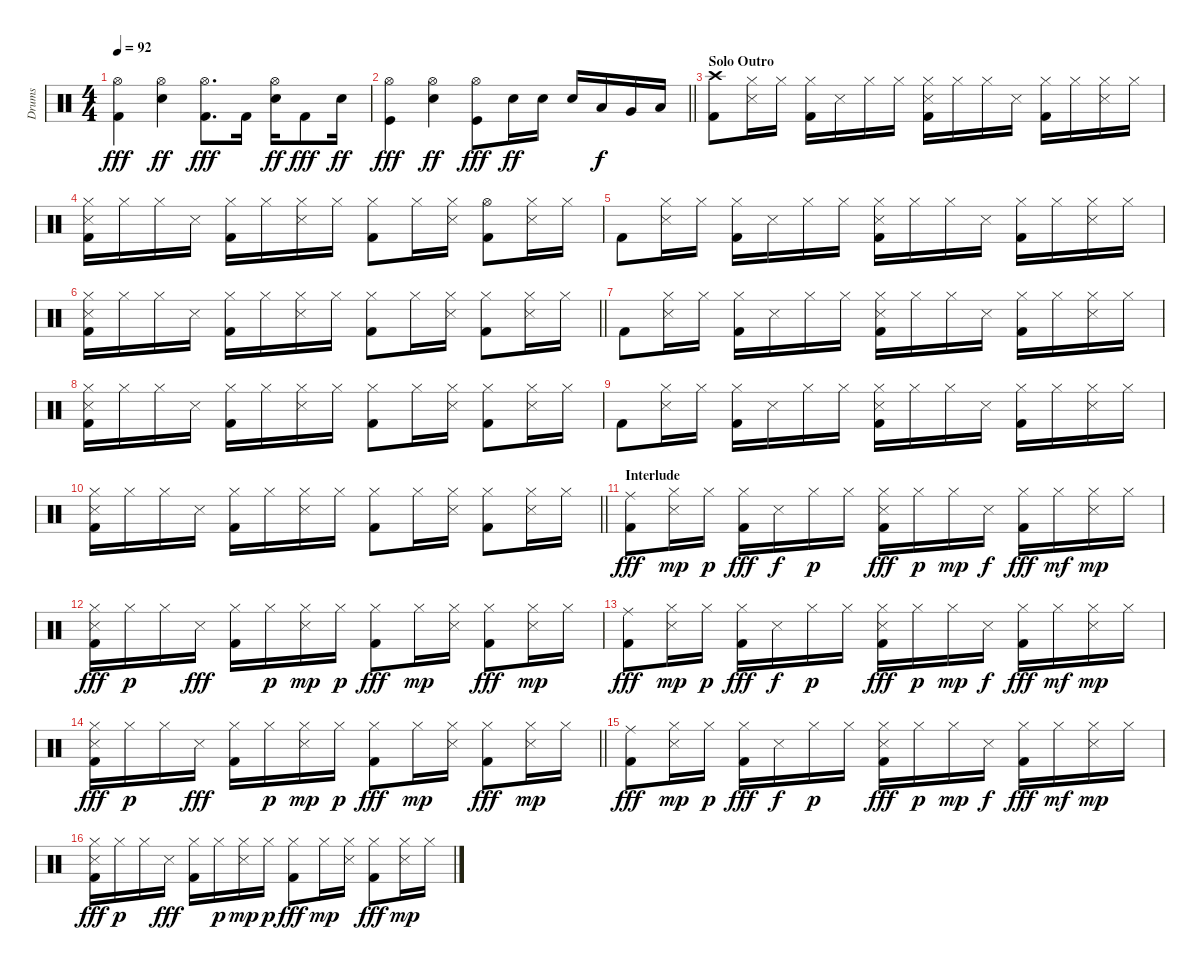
\track ("Drums" "Drums") {instrument percussion}
\staff {score}
\articulation defaults
\ts (4 4)
\tempo 92
\clef neutral
\ks c
("Hi-Hat (open)" "Kick (hit) 2").4{dy fff} ("Hi-Hat (open)" "Electric Snare (hit)").4{dy ff} ("Hi-Hat (open)" "Kick (hit) 2").8{d dy fff} "Kick (hit) 2".16 ("Hi-Hat (open)" "Electric Snare (hit)").16{dy ff} "Kick (hit) 2".8{dy fff} "Electric Snare (hit)".16{dy ff} |
\barLineRight lightlight
("Hi-Hat (open)" "Kick (hit)").4{dy fff} ("Hi-Hat (open)" "Electric Snare (hit)").4{dy ff} ("Hi-Hat (open)" "Kick (hit)").8{dy fff} "Electric Snare (hit)".16{dy ff} "Electric Snare (hit)".16 "Electric Snare (hit)".16 "Low Tom (hit)".16{dy f} "Very Low Tom (hit)".16 "Low Floor Tom (hit)".16 |
\section ("" "Solo Outro")
("Crash high (hit)" "Kick (hit) 2").8 ("Snare (side stick) 3" "Hi-Hat (closed)").16 "Hi-Hat (closed)".16 ("Hi-Hat (closed)" "Kick (hit) 2").16 "Snare (side stick) 3".16 "Hi-Hat (closed)".16 "Hi-Hat (closed)".16 ("Snare (side stick) 3" "Hi-Hat (closed)" "Kick (hit) 2").16 "Hi-Hat (closed)".16 "Hi-Hat (closed)".16 "Snare (side stick) 3".16 ("Hi-Hat (closed)" "Kick (hit) 2").16 "Hi-Hat (closed)".16 ("Snare (side stick) 3" "Hi-Hat (closed)").16 "Hi-Hat (closed)".16 |
("Snare (side stick) 3" "Hi-Hat (closed)" "Kick (hit) 2").16 "Hi-Hat (closed)".16 "Hi-Hat (closed)".16 "Snare (side stick) 3".16 ("Hi-Hat (closed)" "Kick (hit) 2").16 "Hi-Hat (closed)".16 ("Snare (side stick) 3" "Hi-Hat (closed)").16 "Hi-Hat (closed)".16 ("Hi-Hat (closed)" "Kick (hit) 2").8 "Hi-Hat (closed)".16 ("Snare (side stick) 3" "Hi-Hat (closed)").16 ("Hi-Hat (open)" "Kick (hit) 2").8 ("Snare (side stick) 3" "Hi-Hat (closed)").16 "Hi-Hat (closed)".16 |
"Kick (hit) 2".8 ("Snare (side stick) 3" "Hi-Hat (closed)").16 "Hi-Hat (closed)".16 ("Hi-Hat (closed)" "Kick (hit) 2").16 "Snare (side stick) 3".16 "Hi-Hat (closed)".16 "Hi-Hat (closed)".16 ("Snare (side stick) 3" "Hi-Hat (closed)" "Kick (hit) 2").16 "Hi-Hat (closed)".16 "Hi-Hat (closed)".16 "Snare (side stick) 3".16 ("Hi-Hat (closed)" "Kick (hit) 2").16 "Hi-Hat (closed)".16 ("Snare (side stick) 3" "Hi-Hat (closed)").16 "Hi-Hat (closed)".16 |
\barLineRight lightlight
("Snare (side stick) 3" "Hi-Hat (closed)" "Kick (hit) 2").16 "Hi-Hat (closed)".16 "Hi-Hat (closed)".16 "Snare (side stick) 3".16 ("Hi-Hat (closed)" "Kick (hit) 2").16 "Hi-Hat (closed)".16 ("Snare (side stick) 3" "Hi-Hat (closed)").16 "Hi-Hat (closed)".16 ("Hi-Hat (closed)" "Kick (hit) 2").8 "Hi-Hat (closed)".16 ("Snare (side stick) 3" "Hi-Hat (closed)").16 ("Hi-Hat (closed)" "Kick (hit) 2").8 ("Snare (side stick) 3" "Hi-Hat (closed)").16 "Hi-Hat (closed)".16 |
\section ("" "")
"Kick (hit) 2".8 ("Snare (side stick) 3" "Hi-Hat (closed)").16 "Hi-Hat (closed)".16 ("Hi-Hat (closed)" "Kick (hit) 2").16 "Snare (side stick) 3".16 "Hi-Hat (closed)".16 "Hi-Hat (closed)".16 ("Snare (side stick) 3" "Hi-Hat (closed)" "Kick (hit) 2").16 "Hi-Hat (closed)".16 "Hi-Hat (closed)".16 "Snare (side stick) 3".16 ("Hi-Hat (closed)" "Kick (hit) 2").16 "Hi-Hat (closed)".16 ("Snare (side stick) 3" "Hi-Hat (closed)").16 "Hi-Hat (closed)".16 |
("Snare (side stick) 3" "Hi-Hat (closed)" "Kick (hit) 2").16 "Hi-Hat (closed)".16 "Hi-Hat (closed)".16 "Snare (side stick) 3".16 ("Hi-Hat (closed)" "Kick (hit) 2").16 "Hi-Hat (closed)".16 ("Snare (side stick) 3" "Hi-Hat (closed)").16 "Hi-Hat (closed)".16 ("Hi-Hat (closed)" "Kick (hit) 2").8 "Hi-Hat (closed)".16 ("Snare (side stick) 3" "Hi-Hat (closed)").16 ("Hi-Hat (closed)" "Kick (hit) 2").8 ("Snare (side stick) 3" "Hi-Hat (closed)").16 "Hi-Hat (closed)".16 |
"Kick (hit) 2".8 ("Snare (side stick) 3" "Hi-Hat (closed)").16 "Hi-Hat (closed)".16 ("Hi-Hat (closed)" "Kick (hit) 2").16 "Snare (side stick) 3".16 "Hi-Hat (closed)".16 "Hi-Hat (closed)".16 ("Snare (side stick) 3" "Hi-Hat (closed)" "Kick (hit) 2").16 "Hi-Hat (closed)".16 "Hi-Hat (closed)".16 "Snare (side stick) 3".16 ("Hi-Hat (closed)" "Kick (hit) 2").16 "Hi-Hat (closed)".16 ("Snare (side stick) 3" "Hi-Hat (closed)").16 "Hi-Hat (closed)".16 |
\barLineRight lightlight
("Snare (side stick) 3" "Hi-Hat (closed)" "Kick (hit) 2").16 "Hi-Hat (closed)".16 "Hi-Hat (closed)".16 "Snare (side stick) 3".16 ("Hi-Hat (closed)" "Kick (hit) 2").16 "Hi-Hat (closed)".16 ("Snare (side stick) 3" "Hi-Hat (closed)").16 "Hi-Hat (closed)".16 ("Hi-Hat (closed)" "Kick (hit) 2").8 "Hi-Hat (closed)".16 ("Snare (side stick) 3" "Hi-Hat (closed)").16 ("Hi-Hat (closed)" "Kick (hit) 2").8 ("Snare (side stick) 3" "Hi-Hat (closed)").16 "Hi-Hat (closed)".16 |
\section ("" "Interlude")
("Ride (middle)" "Kick (hit) 2").8{dy fff} ("Snare (side stick) 3" "Hi-Hat (closed)").16{dy mp} "Hi-Hat (closed)".16{dy p} ("Hi-Hat (closed)" "Kick (hit) 2").16{dy fff} "Snare (side stick) 3".16{dy f} "Hi-Hat (closed)".16{dy p} "Hi-Hat (closed)".16 ("Snare (side stick) 3" "Hi-Hat (closed)" "Kick (hit) 2").16{dy fff} "Hi-Hat (closed)".16{dy p} "Hi-Hat (closed)".16{dy mp} "Snare (side stick) 3".16{dy f} ("Hi-Hat (closed)" "Kick (hit) 2").16{dy fff} "Hi-Hat (closed)".16{dy mf} ("Snare (side stick) 3" "Hi-Hat (closed)").16{dy mp} "Hi-Hat (closed)".16 |
("Snare (side stick) 3" "Hi-Hat (closed)" "Kick (hit) 2").16{dy fff} "Hi-Hat (closed)".16{dy p} "Hi-Hat (closed)".16 "Snare (side stick) 3".16{dy fff} ("Hi-Hat (closed)" "Kick (hit) 2").16 "Hi-Hat (closed)".16{dy p} ("Snare (side stick) 3" "Hi-Hat (closed)").16{dy mp} "Hi-Hat (closed)".16{dy p} ("Hi-Hat (closed)" "Kick (hit) 2").8{dy fff} "Hi-Hat (closed)".16{dy mp} ("Snare (side stick) 3" "Hi-Hat (closed)").16 ("Hi-Hat (closed)" "Kick (hit) 2").8{dy fff} ("Snare (side stick) 3" "Hi-Hat (closed)").16{dy mp} "Hi-Hat (closed)".16 |
("Ride (middle)" "Kick (hit) 2").8{dy fff} ("Snare (side stick) 3" "Hi-Hat (closed)").16{dy mp} "Hi-Hat (closed)".16{dy p} ("Hi-Hat (closed)" "Kick (hit) 2").16{dy fff} "Snare (side stick) 3".16{dy f} "Hi-Hat (closed)".16{dy p} "Hi-Hat (closed)".16 ("Snare (side stick) 3" "Hi-Hat (closed)" "Kick (hit) 2").16{dy fff} "Hi-Hat (closed)".16{dy p} "Hi-Hat (closed)".16{dy mp} "Snare (side stick) 3".16{dy f} ("Hi-Hat (closed)" "Kick (hit) 2").16{dy fff} "Hi-Hat (closed)".16{dy mf} ("Snare (side stick) 3" "Hi-Hat (closed)").16{dy mp} "Hi-Hat (closed)".16 |
\barLineRight lightlight
("Snare (side stick) 3" "Hi-Hat (closed)" "Kick (hit) 2").16{dy fff} "Hi-Hat (closed)".16{dy p} "Hi-Hat (closed)".16 "Snare (side stick) 3".16{dy fff} ("Hi-Hat (closed)" "Kick (hit) 2").16 "Hi-Hat (closed)".16{dy p} ("Snare (side stick) 3" "Hi-Hat (closed)").16{dy mp} "Hi-Hat (closed)".16{dy p} ("Hi-Hat (closed)" "Kick (hit) 2").8{dy fff} "Hi-Hat (closed)".16{dy mp} ("Snare (side stick) 3" "Hi-Hat (closed)").16 ("Hi-Hat (closed)" "Kick (hit) 2").8{dy fff} ("Snare (side stick) 3" "Hi-Hat (closed)").16{dy mp} "Hi-Hat (closed)".16 |
\section ("" "")
("Ride (middle)" "Kick (hit) 2").8{dy fff} ("Snare (side stick) 3" "Hi-Hat (closed)").16{dy mp} "Hi-Hat (closed)".16{dy p} ("Hi-Hat (closed)" "Kick (hit) 2").16{dy fff} "Snare (side stick) 3".16{dy f} "Hi-Hat (closed)".16{dy p} "Hi-Hat (closed)".16 ("Snare (side stick) 3" "Hi-Hat (closed)" "Kick (hit) 2").16{dy fff} "Hi-Hat (closed)".16{dy p} "Hi-Hat (closed)".16{dy mp} "Snare (side stick) 3".16{dy f} ("Hi-Hat (closed)" "Kick (hit) 2").16{dy fff} "Hi-Hat (closed)".16{dy mf} ("Snare (side stick) 3" "Hi-Hat (closed)").16{dy mp} "Hi-Hat (closed)".16 |
("Snare (side stick) 3" "Hi-Hat (closed)" "Kick (hit) 2").16{dy fff} "Hi-Hat (closed)".16{dy p} "Hi-Hat (closed)".16 "Snare (side stick) 3".16{dy fff} ("Hi-Hat (closed)" "Kick (hit) 2").16 "Hi-Hat (closed)".16{dy p} ("Snare (side stick) 3" "Hi-Hat (closed)").16{dy mp} "Hi-Hat (closed)".16{dy p} ("Hi-Hat (closed)" "Kick (hit) 2").8{dy fff} "Hi-Hat (closed)".16{dy mp} ("Snare (side stick) 3" "Hi-Hat (closed)").16 ("Hi-Hat (closed)" "Kick (hit) 2").8{dy fff} ("Snare (side stick) 3" "Hi-Hat (closed)").16{dy mp} "Hi-Hat (closed)".16
